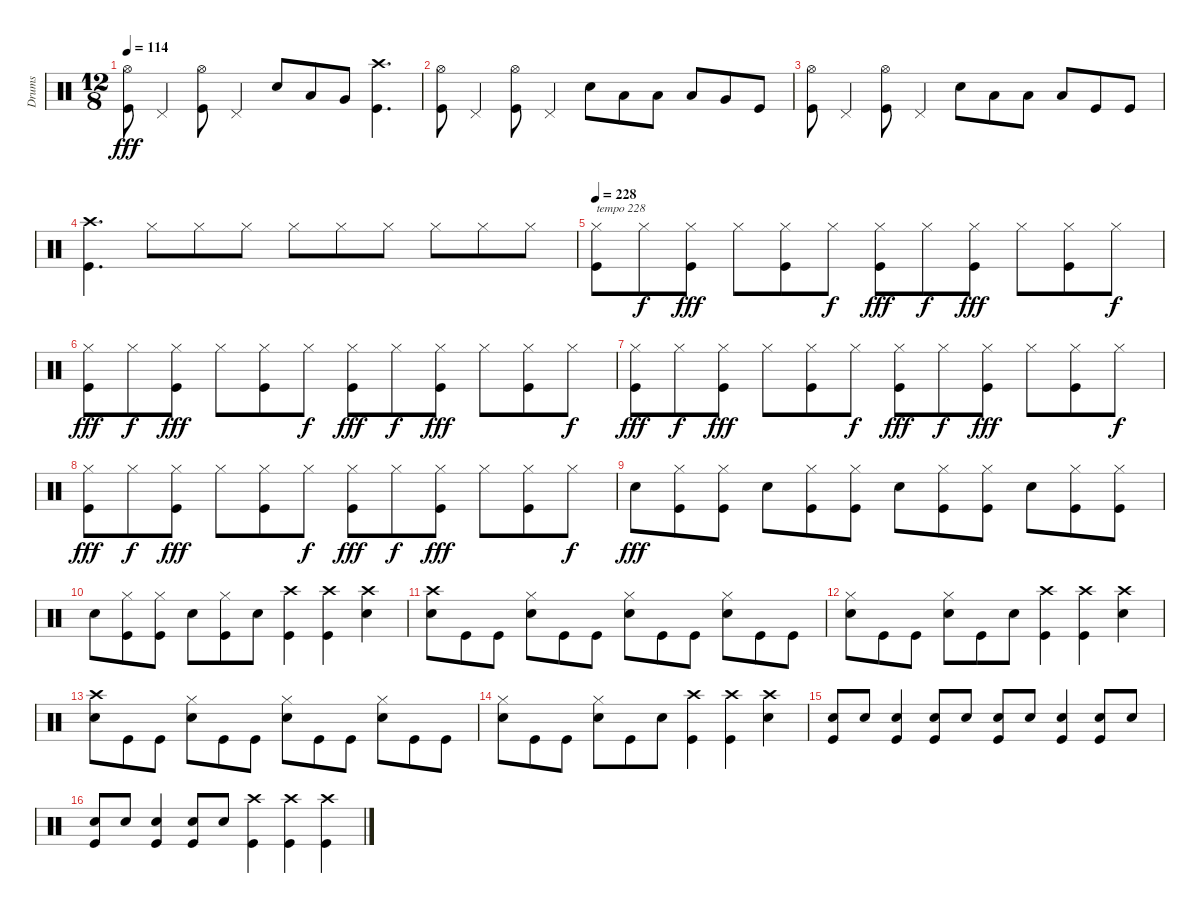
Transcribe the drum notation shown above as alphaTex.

\track ("Drums" "Drums") {instrument percussion}
\staff {score}
\articulation defaults
\ts (12 8)
\tempo 114
\clef neutral
\ks c
("Hi-Hat (open)" "Kick (hit)").8{dy fff} "Pedal Hi-Hat (hit)".4 ("Hi-Hat (open)" "Kick (hit)").8 "Pedal Hi-Hat (hit)".4 "Snare (hit) 2".8 "Low Tom (hit)".8 "Very Low Tom (hit)".8 ("Crash high (hit)" "Kick (hit)").4{d} |
("Hi-Hat (open)" "Kick (hit)").8 "Pedal Hi-Hat (hit)".4 ("Hi-Hat (open)" "Kick (hit)").8 "Pedal Hi-Hat (hit)".4 "Snare (hit) 2".8 "Low Tom (hit)".8 "Low Tom (hit)".8 "Low Tom (hit)".8 "Very Low Tom (hit)".8 "Kick (hit)".8 |
("Hi-Hat (open)" "Kick (hit)").8 "Pedal Hi-Hat (hit)".4 ("Hi-Hat (open)" "Kick (hit)").8 "Pedal Hi-Hat (hit)".4 "Snare (hit) 2".8 "Low Tom (hit)".8 "Low Tom (hit)".8 "Low Tom (hit)".8 "Kick (hit)".8 "Kick (hit)".8 |
("Crash high (hit)" "Kick (hit)").4{d} "Hi-Hat (closed)".8 "Hi-Hat (closed)".8 "Hi-Hat (closed)".8 "Hi-Hat (closed)".8 "Hi-Hat (closed)".8 "Hi-Hat (closed)".8 "Hi-Hat (closed)".8 "Hi-Hat (closed)".8 "Hi-Hat (closed)".8 |
\tempo 228
("Hi-Hat (closed)" "Kick (hit)").8{txt "tempo 228"} "Hi-Hat (closed)".8{dy f} ("Hi-Hat (closed)" "Kick (hit)").8{dy fff} "Hi-Hat (closed)".8 ("Hi-Hat (closed)" "Kick (hit)").8 "Hi-Hat (closed)".8{dy f} ("Hi-Hat (closed)" "Kick (hit)").8{dy fff} "Hi-Hat (closed)".8{dy f} ("Hi-Hat (closed)" "Kick (hit)").8{dy fff} "Hi-Hat (closed)".8 ("Hi-Hat (closed)" "Kick (hit)").8 "Hi-Hat (closed)".8{dy f} |
("Hi-Hat (closed)" "Kick (hit)").8{dy fff} "Hi-Hat (closed)".8{dy f} ("Hi-Hat (closed)" "Kick (hit)").8{dy fff} "Hi-Hat (closed)".8 ("Hi-Hat (closed)" "Kick (hit)").8 "Hi-Hat (closed)".8{dy f} ("Hi-Hat (closed)" "Kick (hit)").8{dy fff} "Hi-Hat (closed)".8{dy f} ("Hi-Hat (closed)" "Kick (hit)").8{dy fff} "Hi-Hat (closed)".8 ("Hi-Hat (closed)" "Kick (hit)").8 "Hi-Hat (closed)".8{dy f} |
("Hi-Hat (closed)" "Kick (hit)").8{dy fff} "Hi-Hat (closed)".8{dy f} ("Hi-Hat (closed)" "Kick (hit)").8{dy fff} "Hi-Hat (closed)".8 ("Hi-Hat (closed)" "Kick (hit)").8 "Hi-Hat (closed)".8{dy f} ("Hi-Hat (closed)" "Kick (hit)").8{dy fff} "Hi-Hat (closed)".8{dy f} ("Hi-Hat (closed)" "Kick (hit)").8{dy fff} "Hi-Hat (closed)".8 ("Hi-Hat (closed)" "Kick (hit)").8 "Hi-Hat (closed)".8{dy f} |
("Hi-Hat (closed)" "Kick (hit)").8{dy fff} "Hi-Hat (closed)".8{dy f} ("Hi-Hat (closed)" "Kick (hit)").8{dy fff} "Hi-Hat (closed)".8 ("Hi-Hat (closed)" "Kick (hit)").8 "Hi-Hat (closed)".8{dy f} ("Hi-Hat (closed)" "Kick (hit)").8{dy fff} "Hi-Hat (closed)".8{dy f} ("Hi-Hat (closed)" "Kick (hit)").8{dy fff} "Hi-Hat (closed)".8 ("Hi-Hat (closed)" "Kick (hit)").8 "Hi-Hat (closed)".8{dy f} |
"Snare (hit) 2".8{dy fff} ("Hi-Hat (closed)" "Kick (hit)").8 ("Hi-Hat (closed)" "Kick (hit)").8 "Snare (hit) 2".8 ("Hi-Hat (closed)" "Kick (hit)").8 ("Hi-Hat (closed)" "Kick (hit)").8 "Snare (hit) 2".8 ("Hi-Hat (closed)" "Kick (hit)").8 ("Hi-Hat (closed)" "Kick (hit)").8 "Snare (hit) 2".8 ("Hi-Hat (closed)" "Kick (hit)").8 ("Hi-Hat (closed)" "Kick (hit)").8 |
"Snare (hit) 2".8 ("Hi-Hat (closed)" "Kick (hit)").8 ("Hi-Hat (closed)" "Kick (hit)").8 "Snare (hit) 2".8 ("Hi-Hat (closed)" "Kick (hit)").8 "Snare (hit) 2".8 ("Crash high (hit)" "Kick (hit)").4 ("Crash high (hit)" "Kick (hit)").4 ("Crash high (hit)" "Snare (hit) 2").4 |
("Crash high (hit)" "Snare (hit) 2").8 "Kick (hit)".8 "Kick (hit)".8 ("Hi-Hat (closed)" "Snare (hit) 2").8 "Kick (hit)".8 "Kick (hit)".8 ("Hi-Hat (closed)" "Snare (hit) 2").8 "Kick (hit)".8 "Kick (hit)".8 ("Hi-Hat (closed)" "Snare (hit) 2").8 "Kick (hit)".8 "Kick (hit)".8 |
("Hi-Hat (closed)" "Snare (hit) 2").8 "Kick (hit)".8 "Kick (hit)".8 ("Hi-Hat (closed)" "Snare (hit) 2").8 "Kick (hit)".8 "Snare (hit) 2".8 ("Crash high (hit)" "Kick (hit)").4 ("Crash high (hit)" "Kick (hit)").4 ("Crash high (hit)" "Snare (hit) 2").4 |
("Crash high (hit)" "Snare (hit) 2").8 "Kick (hit)".8 "Kick (hit)".8 ("Hi-Hat (closed)" "Snare (hit) 2").8 "Kick (hit)".8 "Kick (hit)".8 ("Hi-Hat (closed)" "Snare (hit) 2").8 "Kick (hit)".8 "Kick (hit)".8 ("Hi-Hat (closed)" "Snare (hit) 2").8 "Kick (hit)".8 "Kick (hit)".8 |
("Hi-Hat (closed)" "Snare (hit) 2").8 "Kick (hit)".8 "Kick (hit)".8 ("Hi-Hat (closed)" "Snare (hit) 2").8 "Kick (hit)".8 "Snare (hit) 2".8 ("Crash high (hit)" "Kick (hit)").4 ("Crash high (hit)" "Kick (hit)").4 ("Crash high (hit)" "Snare (hit) 2").4 |
("Snare (hit) 2" "Kick (hit)").8 "Snare (hit) 2".8 ("Snare (hit) 2" "Kick (hit)").4 ("Snare (hit) 2" "Kick (hit)").8 "Snare (hit) 2".8 ("Snare (hit) 2" "Kick (hit)").8 "Snare (hit) 2".8 ("Snare (hit) 2" "Kick (hit)").4 ("Snare (hit) 2" "Kick (hit)").8 "Snare (hit) 2".8 |
("Snare (hit) 2" "Kick (hit)").8 "Snare (hit) 2".8 ("Snare (hit) 2" "Kick (hit)").4 ("Snare (hit) 2" "Kick (hit)").8 "Snare (hit) 2".8 ("Crash high (hit)" "Kick (hit)").4 ("Crash high (hit)" "Kick (hit)").4 ("Crash high (hit)" "Kick (hit)").4
